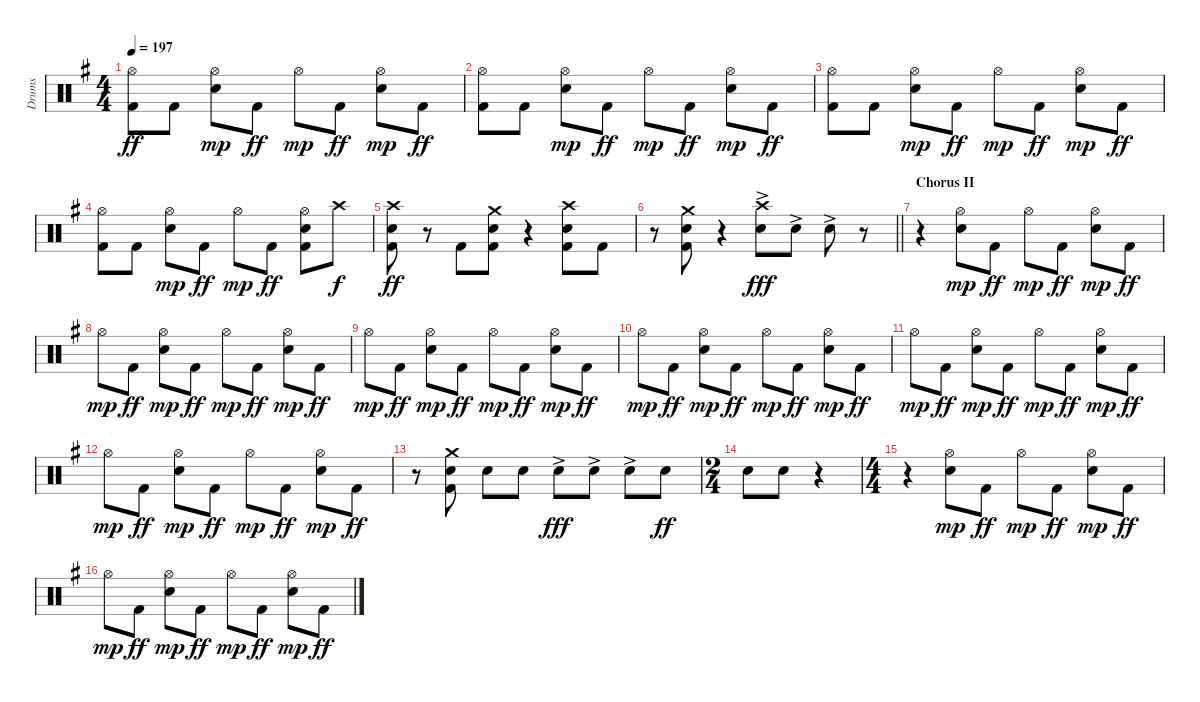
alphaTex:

\track ("Drums" "Drums") {instrument percussion}
\staff {score}
\articulation defaults
\ts (4 4)
\tempo 197
\clef neutral
\ks g
("Hi-Hat (open)" "Kick (hit) 2").8{dy ff} "Kick (hit) 2".8 ("Hi-Hat (open)" "Snare (hit) 2").8{dy mp} "Kick (hit) 2".8{dy ff} "Hi-Hat (open)".8{dy mp} "Kick (hit) 2".8{dy ff} ("Hi-Hat (open)" "Snare (hit) 2").8{dy mp} "Kick (hit) 2".8{dy ff} |
("Hi-Hat (open)" "Kick (hit) 2").8 "Kick (hit) 2".8 ("Hi-Hat (open)" "Snare (hit) 2").8{dy mp} "Kick (hit) 2".8{dy ff} "Hi-Hat (open)".8{dy mp} "Kick (hit) 2".8{dy ff} ("Hi-Hat (open)" "Snare (hit) 2").8{dy mp} "Kick (hit) 2".8{dy ff} |
("Hi-Hat (open)" "Kick (hit) 2").8 "Kick (hit) 2".8 ("Hi-Hat (open)" "Snare (hit) 2").8{dy mp} "Kick (hit) 2".8{dy ff} "Hi-Hat (open)".8{dy mp} "Kick (hit) 2".8{dy ff} ("Hi-Hat (open)" "Snare (hit) 2").8{dy mp} "Kick (hit) 2".8{dy ff} |
("Hi-Hat (open)" "Kick (hit) 2").8 "Kick (hit) 2".8 ("Hi-Hat (open)" "Snare (hit) 2").8{dy mp} "Kick (hit) 2".8{dy ff} "Hi-Hat (open)".8{dy mp} "Kick (hit) 2".8{dy ff} ("Hi-Hat (open)" "Snare (hit) 2" "Kick (hit) 2").8 "Crash high (hit)".8{dy f} |
("Crash high (hit)" "Snare (hit) 2" "Kick (hit) 2").8{dy ff} r.8 "Kick (hit) 2".8 ("Crash medium (hit)" "Snare (hit) 2" "Kick (hit) 2").8 r.4 ("Crash high (hit)" "Snare (hit) 2" "Kick (hit) 2").8 "Kick (hit) 2".8 |
\barLineRight lightlight
r.8 ("Crash medium (hit)" "Snare (hit) 2" "Kick (hit) 2").8 r.4 ("Crash high (hit)" "Snare (hit) 2"{ac}).8{dy fff} "Snare (hit) 2"{ac}.8 "Snare (hit) 2"{ac}.8 r.8 |
\section ("" "Chorus II")
r.4 ("Hi-Hat (open)" "Snare (hit) 2").8{dy mp} "Kick (hit) 2".8{dy ff} "Hi-Hat (open)".8{dy mp} "Kick (hit) 2".8{dy ff} ("Hi-Hat (open)" "Snare (hit) 2").8{dy mp} "Kick (hit) 2".8{dy ff} |
"Hi-Hat (open)".8{dy mp} "Kick (hit) 2".8{dy ff} ("Hi-Hat (open)" "Snare (hit) 2").8{dy mp} "Kick (hit) 2".8{dy ff} "Hi-Hat (open)".8{dy mp} "Kick (hit) 2".8{dy ff} ("Hi-Hat (open)" "Snare (hit) 2").8{dy mp} "Kick (hit) 2".8{dy ff} |
"Hi-Hat (open)".8{dy mp} "Kick (hit) 2".8{dy ff} ("Hi-Hat (open)" "Snare (hit) 2").8{dy mp} "Kick (hit) 2".8{dy ff} "Hi-Hat (open)".8{dy mp} "Kick (hit) 2".8{dy ff} ("Hi-Hat (open)" "Snare (hit) 2").8{dy mp} "Kick (hit) 2".8{dy ff} |
"Hi-Hat (open)".8{dy mp} "Kick (hit) 2".8{dy ff} ("Hi-Hat (open)" "Snare (hit) 2").8{dy mp} "Kick (hit) 2".8{dy ff} "Hi-Hat (open)".8{dy mp} "Kick (hit) 2".8{dy ff} ("Hi-Hat (open)" "Snare (hit) 2").8{dy mp} "Kick (hit) 2".8{dy ff} |
"Hi-Hat (open)".8{dy mp} "Kick (hit) 2".8{dy ff} ("Hi-Hat (open)" "Snare (hit) 2").8{dy mp} "Kick (hit) 2".8{dy ff} "Hi-Hat (open)".8{dy mp} "Kick (hit) 2".8{dy ff} ("Hi-Hat (open)" "Snare (hit) 2").8{dy mp} "Kick (hit) 2".8{dy ff} |
"Hi-Hat (open)".8{dy mp} "Kick (hit) 2".8{dy ff} ("Hi-Hat (open)" "Snare (hit) 2").8{dy mp} "Kick (hit) 2".8{dy ff} "Hi-Hat (open)".8{dy mp} "Kick (hit) 2".8{dy ff} ("Hi-Hat (open)" "Snare (hit) 2").8{dy mp} "Kick (hit) 2".8{dy ff} |
r.8 ("Crash medium (hit)" "Snare (hit) 2" "Kick (hit) 2").8 "Snare (hit) 2".8 "Hand Clap (hit)".8 "Snare (hit) 2"{ac}.8{dy fff} "Snare (hit) 2"{ac}.8 "Snare (hit) 2"{ac}.8 "Snare (hit) 2".8{dy ff} |
\ts (2 4)
"Snare (hit) 2".8 "Snare (hit) 2".8 r.4 |
\ts (4 4)
r.4 ("Hi-Hat (open)" "Snare (hit) 2").8{dy mp} "Kick (hit) 2".8{dy ff} "Hi-Hat (open)".8{dy mp} "Kick (hit) 2".8{dy ff} ("Hi-Hat (open)" "Snare (hit) 2").8{dy mp} "Kick (hit) 2".8{dy ff} |
"Hi-Hat (open)".8{dy mp} "Kick (hit) 2".8{dy ff} ("Hi-Hat (open)" "Snare (hit) 2").8{dy mp} "Kick (hit) 2".8{dy ff} "Hi-Hat (open)".8{dy mp} "Kick (hit) 2".8{dy ff} ("Hi-Hat (open)" "Snare (hit) 2").8{dy mp} "Kick (hit) 2".8{dy ff}
